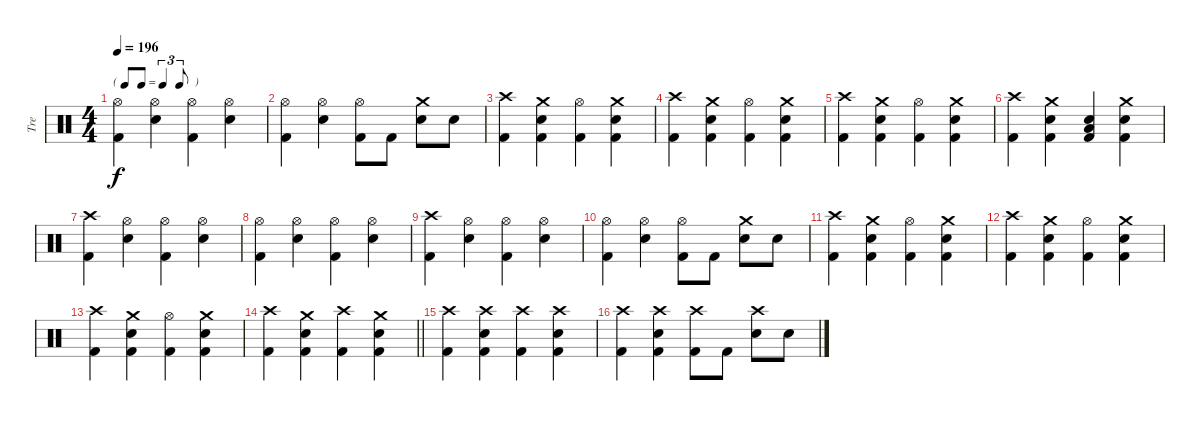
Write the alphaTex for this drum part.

\track ("Tre" "Tre") {instrument percussion}
\staff {score}
\articulation defaults
\ts (4 4)
\tf triplet8th
\tempo 196
\clef neutral
\ks c
("Hi-Hat (open)" "Kick (hit) 2").4{dy f} ("Hi-Hat (open)" "Snare (hit) 2").4 ("Hi-Hat (open)" "Kick (hit) 2").4 ("Hi-Hat (open)" "Snare (hit) 2").4 |
("Hi-Hat (open)" "Kick (hit) 2").4 ("Hi-Hat (open)" "Snare (hit) 2").4 ("Hi-Hat (open)" "Kick (hit) 2").8 "Kick (hit) 2".8 ("Crash medium (hit)" "Snare (hit) 2").8 "Snare (hit) 2".8 |
("Crash high (hit)" "Kick (hit) 2").4 ("Crash medium (hit)" "Snare (hit) 2" "Kick (hit) 2").4 ("Hi-Hat (open)" "Kick (hit) 2").4 ("Crash medium (hit)" "Snare (hit) 2" "Kick (hit) 2").4 |
("Crash high (hit)" "Kick (hit) 2").4 ("Crash medium (hit)" "Snare (hit) 2" "Kick (hit) 2").4 ("Hi-Hat (open)" "Kick (hit) 2").4 ("Crash medium (hit)" "Snare (hit) 2" "Kick (hit) 2").4 |
("Crash high (hit)" "Kick (hit) 2").4 ("Crash medium (hit)" "Snare (hit) 2" "Kick (hit) 2").4 ("Hi-Hat (open)" "Kick (hit) 2").4 ("Crash medium (hit)" "Snare (hit) 2" "Kick (hit) 2").4 |
("Crash high (hit)" "Kick (hit) 2").4 ("Crash medium (hit)" "Snare (hit) 2" "Kick (hit) 2").4 ("Snare (hit) 2" "Low Floor Tom (hit)" "Kick (hit) 2").4 ("Crash medium (hit)" "Snare (hit) 2" "Kick (hit) 2").4 |
("Crash high (hit)" "Kick (hit) 2").4 ("Hi-Hat (open)" "Snare (hit) 2").4 ("Hi-Hat (open)" "Kick (hit) 2").4 ("Hi-Hat (open)" "Snare (hit) 2").4 |
("Hi-Hat (open)" "Kick (hit) 2").4 ("Hi-Hat (open)" "Snare (hit) 2").4 ("Hi-Hat (open)" "Kick (hit) 2").4 ("Hi-Hat (open)" "Snare (hit) 2").4 |
("Crash high (hit)" "Kick (hit) 2").4 ("Hi-Hat (open)" "Snare (hit) 2").4 ("Hi-Hat (open)" "Kick (hit) 2").4 ("Hi-Hat (open)" "Snare (hit) 2").4 |
("Hi-Hat (open)" "Kick (hit) 2").4 ("Hi-Hat (open)" "Snare (hit) 2").4 ("Hi-Hat (open)" "Kick (hit) 2").8 "Kick (hit) 2".8 ("Crash medium (hit)" "Snare (hit) 2").8 "Snare (hit) 2".8 |
("Crash high (hit)" "Kick (hit) 2").4 ("Crash medium (hit)" "Snare (hit) 2" "Kick (hit) 2").4 ("Hi-Hat (open)" "Kick (hit) 2").4 ("Crash medium (hit)" "Snare (hit) 2" "Kick (hit) 2").4 |
("Crash high (hit)" "Kick (hit) 2").4 ("Crash medium (hit)" "Snare (hit) 2" "Kick (hit) 2").4 ("Hi-Hat (open)" "Kick (hit) 2").4 ("Crash medium (hit)" "Snare (hit) 2" "Kick (hit) 2").4 |
("Crash high (hit)" "Kick (hit) 2").4 ("Crash medium (hit)" "Snare (hit) 2" "Kick (hit) 2").4 ("Hi-Hat (open)" "Kick (hit) 2").4 ("Crash medium (hit)" "Snare (hit) 2" "Kick (hit) 2").4 |
\barLineRight lightlight
("Crash high (hit)" "Kick (hit) 2").4 ("Crash medium (hit)" "Snare (hit) 2" "Kick (hit) 2").4 ("Crash high (hit)" "Kick (hit) 2").4 ("Crash medium (hit)" "Snare (hit) 2" "Kick (hit) 2").4 |
("Crash high (hit)" "Kick (hit) 2").4 ("Crash high (hit)" "Snare (hit) 2" "Kick (hit) 2").4 ("Crash high (hit)" "Kick (hit) 2").4 ("Crash high (hit)" "Snare (hit) 2" "Kick (hit) 2").4 |
("Crash high (hit)" "Kick (hit) 2").4 ("Crash high (hit)" "Snare (hit) 2" "Kick (hit) 2").4 ("Crash high (hit)" "Kick (hit) 2").8 "Kick (hit) 2".8 ("Crash high (hit)" "Snare (hit) 2").8 "Snare (hit) 2".8
